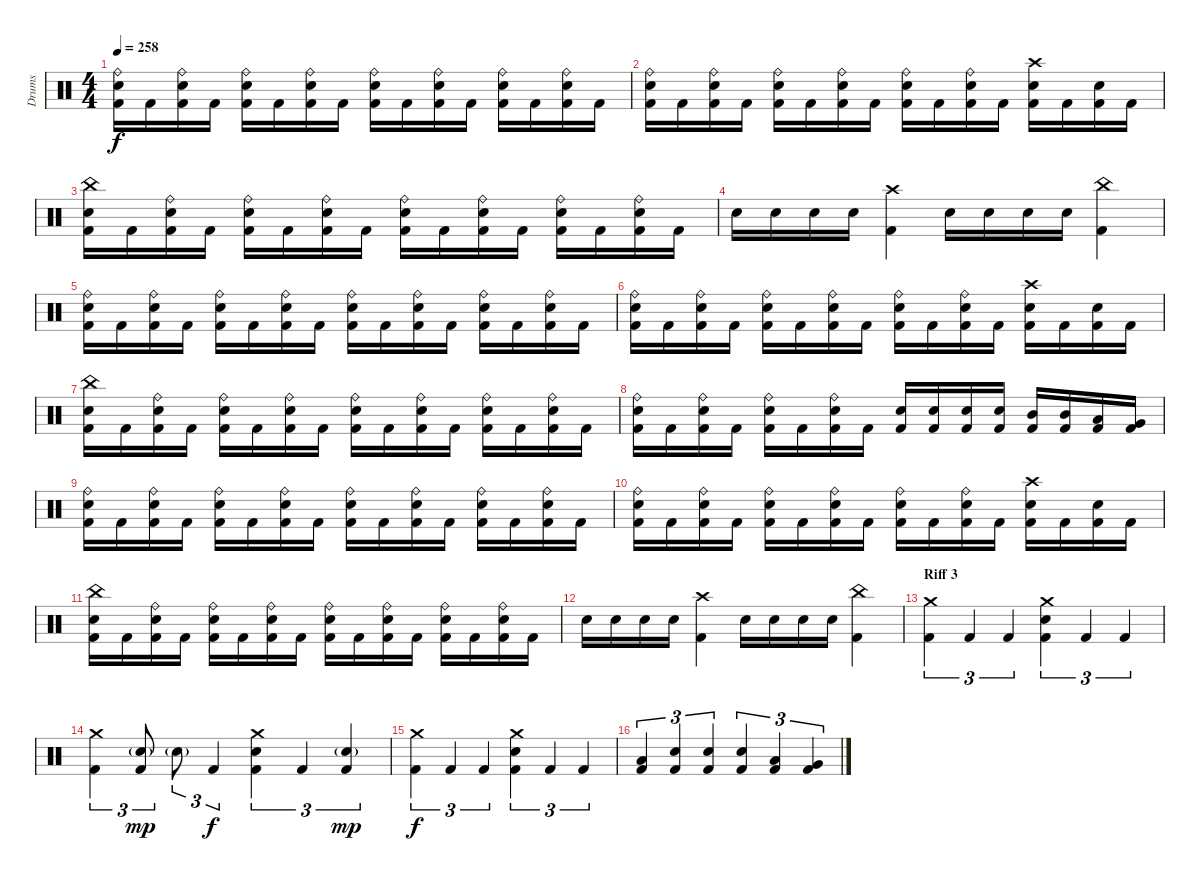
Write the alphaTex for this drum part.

\track ("Drums" "Drums") {instrument percussion}
\staff {score}
\articulation defaults
\ts (4 4)
\tempo 258
\clef neutral
\ks c
("Kick (hit) 2" "Snare (hit) 2" "Ride (bell)").16{dy f} "Kick (hit) 2".16 ("Kick (hit) 2" "Snare (hit) 2" "Ride (bell)").16 "Kick (hit) 2".16 ("Kick (hit) 2" "Snare (hit) 2" "Ride (bell)").16 "Kick (hit) 2".16 ("Kick (hit) 2" "Snare (hit) 2" "Ride (bell)").16 "Kick (hit) 2".16 ("Kick (hit) 2" "Snare (hit) 2" "Ride (bell)").16 "Kick (hit) 2".16 ("Kick (hit) 2" "Snare (hit) 2" "Ride (bell)").16 "Kick (hit) 2".16 ("Kick (hit) 2" "Snare (hit) 2" "Ride (bell)").16 "Kick (hit) 2".16 ("Kick (hit) 2" "Snare (hit) 2" "Ride (bell)").16 "Kick (hit) 2".16 |
("Kick (hit) 2" "Snare (hit) 2" "Ride (bell)").16 "Kick (hit) 2".16 ("Kick (hit) 2" "Snare (hit) 2" "Ride (bell)").16 "Kick (hit) 2".16 ("Kick (hit) 2" "Snare (hit) 2" "Ride (bell)").16 "Kick (hit) 2".16 ("Kick (hit) 2" "Snare (hit) 2" "Ride (bell)").16 "Kick (hit) 2".16 ("Kick (hit) 2" "Snare (hit) 2" "Ride (bell)").16 "Kick (hit) 2".16 ("Kick (hit) 2" "Snare (hit) 2" "Ride (bell)").16 "Kick (hit) 2".16 ("Kick (hit) 2" "Snare (hit) 2" "Crash high (hit)").16 "Kick (hit) 2".16 ("Kick (hit) 2" "Snare (hit) 2").16 "Kick (hit) 2".16 |
("Kick (hit) 2" "Snare (hit) 2" "China (hit)").16 "Kick (hit) 2".16 ("Kick (hit) 2" "Snare (hit) 2" "Ride (bell)").16 "Kick (hit) 2".16 ("Kick (hit) 2" "Snare (hit) 2" "Ride (bell)").16 "Kick (hit) 2".16 ("Kick (hit) 2" "Snare (hit) 2" "Ride (bell)").16 "Kick (hit) 2".16 ("Kick (hit) 2" "Snare (hit) 2" "Ride (bell)").16 "Kick (hit) 2".16 ("Kick (hit) 2" "Snare (hit) 2" "Ride (bell)").16 "Kick (hit) 2".16 ("Kick (hit) 2" "Snare (hit) 2" "Ride (bell)").16 "Kick (hit) 2".16 ("Kick (hit) 2" "Snare (hit) 2" "Ride (bell)").16 "Kick (hit) 2".16 |
"Snare (hit) 2".16 "Snare (hit) 2".16 "Snare (hit) 2".16 "Snare (hit) 2".16 ("Kick (hit) 2" "Crash high (hit)").4 "Snare (hit) 2".16 "Snare (hit) 2".16 "Snare (hit) 2".16 "Snare (hit) 2".16 ("Kick (hit) 2" "China (hit)").4 |
("Kick (hit) 2" "Snare (hit) 2" "Ride (bell)").16 "Kick (hit) 2".16 ("Kick (hit) 2" "Snare (hit) 2" "Ride (bell)").16 "Kick (hit) 2".16 ("Kick (hit) 2" "Snare (hit) 2" "Ride (bell)").16 "Kick (hit) 2".16 ("Kick (hit) 2" "Snare (hit) 2" "Ride (bell)").16 "Kick (hit) 2".16 ("Kick (hit) 2" "Snare (hit) 2" "Ride (bell)").16 "Kick (hit) 2".16 ("Kick (hit) 2" "Snare (hit) 2" "Ride (bell)").16 "Kick (hit) 2".16 ("Kick (hit) 2" "Snare (hit) 2" "Ride (bell)").16 "Kick (hit) 2".16 ("Kick (hit) 2" "Snare (hit) 2" "Ride (bell)").16 "Kick (hit) 2".16 |
("Kick (hit) 2" "Snare (hit) 2" "Ride (bell)").16 "Kick (hit) 2".16 ("Kick (hit) 2" "Snare (hit) 2" "Ride (bell)").16 "Kick (hit) 2".16 ("Kick (hit) 2" "Snare (hit) 2" "Ride (bell)").16 "Kick (hit) 2".16 ("Kick (hit) 2" "Snare (hit) 2" "Ride (bell)").16 "Kick (hit) 2".16 ("Kick (hit) 2" "Snare (hit) 2" "Ride (bell)").16 "Kick (hit) 2".16 ("Kick (hit) 2" "Snare (hit) 2" "Ride (bell)").16 "Kick (hit) 2".16 ("Kick (hit) 2" "Snare (hit) 2" "Crash high (hit)").16 "Kick (hit) 2".16 ("Kick (hit) 2" "Snare (hit) 2").16 "Kick (hit) 2".16 |
("Kick (hit) 2" "Snare (hit) 2" "China (hit)").16 "Kick (hit) 2".16 ("Kick (hit) 2" "Snare (hit) 2" "Ride (bell)").16 "Kick (hit) 2".16 ("Kick (hit) 2" "Snare (hit) 2" "Ride (bell)").16 "Kick (hit) 2".16 ("Kick (hit) 2" "Snare (hit) 2" "Ride (bell)").16 "Kick (hit) 2".16 ("Kick (hit) 2" "Snare (hit) 2" "Ride (bell)").16 "Kick (hit) 2".16 ("Kick (hit) 2" "Snare (hit) 2" "Ride (bell)").16 "Kick (hit) 2".16 ("Kick (hit) 2" "Snare (hit) 2" "Ride (bell)").16 "Kick (hit) 2".16 ("Kick (hit) 2" "Snare (hit) 2" "Ride (bell)").16 "Kick (hit) 2".16 |
("Kick (hit) 2" "Snare (hit) 2" "Ride (bell)").16 "Kick (hit) 2".16 ("Kick (hit) 2" "Snare (hit) 2" "Ride (bell)").16 "Kick (hit) 2".16 ("Kick (hit) 2" "Snare (hit) 2" "Ride (bell)").16 "Kick (hit) 2".16 ("Kick (hit) 2" "Snare (hit) 2" "Ride (bell)").16 "Kick (hit) 2".16 ("Kick (hit) 2" "Snare (hit) 2").16 ("Kick (hit) 2" "Snare (hit) 2").16 ("Kick (hit) 2" "Snare (hit) 2").16 ("Kick (hit) 2" "Snare (hit) 2").16 ("Kick (hit) 2" "Mid Tom (hit)").16 ("Kick (hit) 2" "Mid Tom (hit)").16 ("Kick (hit) 2" "Low Tom (hit)").16 ("Kick (hit) 2" "Very Low Tom (hit)").16 |
("Kick (hit) 2" "Snare (hit) 2" "Ride (bell)").16 "Kick (hit) 2".16 ("Kick (hit) 2" "Snare (hit) 2" "Ride (bell)").16 "Kick (hit) 2".16 ("Kick (hit) 2" "Snare (hit) 2" "Ride (bell)").16 "Kick (hit) 2".16 ("Kick (hit) 2" "Snare (hit) 2" "Ride (bell)").16 "Kick (hit) 2".16 ("Kick (hit) 2" "Snare (hit) 2" "Ride (bell)").16 "Kick (hit) 2".16 ("Kick (hit) 2" "Snare (hit) 2" "Ride (bell)").16 "Kick (hit) 2".16 ("Kick (hit) 2" "Snare (hit) 2" "Ride (bell)").16 "Kick (hit) 2".16 ("Kick (hit) 2" "Snare (hit) 2" "Ride (bell)").16 "Kick (hit) 2".16 |
("Kick (hit) 2" "Snare (hit) 2" "Ride (bell)").16 "Kick (hit) 2".16 ("Kick (hit) 2" "Snare (hit) 2" "Ride (bell)").16 "Kick (hit) 2".16 ("Kick (hit) 2" "Snare (hit) 2" "Ride (bell)").16 "Kick (hit) 2".16 ("Kick (hit) 2" "Snare (hit) 2" "Ride (bell)").16 "Kick (hit) 2".16 ("Kick (hit) 2" "Snare (hit) 2" "Ride (bell)").16 "Kick (hit) 2".16 ("Kick (hit) 2" "Snare (hit) 2" "Ride (bell)").16 "Kick (hit) 2".16 ("Kick (hit) 2" "Snare (hit) 2" "Crash high (hit)").16 "Kick (hit) 2".16 ("Kick (hit) 2" "Snare (hit) 2").16 "Kick (hit) 2".16 |
("Kick (hit) 2" "Snare (hit) 2" "China (hit)").16 "Kick (hit) 2".16 ("Kick (hit) 2" "Snare (hit) 2" "Ride (bell)").16 "Kick (hit) 2".16 ("Kick (hit) 2" "Snare (hit) 2" "Ride (bell)").16 "Kick (hit) 2".16 ("Kick (hit) 2" "Snare (hit) 2" "Ride (bell)").16 "Kick (hit) 2".16 ("Kick (hit) 2" "Snare (hit) 2" "Ride (bell)").16 "Kick (hit) 2".16 ("Kick (hit) 2" "Snare (hit) 2" "Ride (bell)").16 "Kick (hit) 2".16 ("Kick (hit) 2" "Snare (hit) 2" "Ride (bell)").16 "Kick (hit) 2".16 ("Kick (hit) 2" "Snare (hit) 2" "Ride (bell)").16 "Kick (hit) 2".16 |
"Snare (hit) 2".16 "Snare (hit) 2".16 "Snare (hit) 2".16 "Snare (hit) 2".16 ("Kick (hit) 2" "Crash high (hit)").4 "Snare (hit) 2".16 "Snare (hit) 2".16 "Snare (hit) 2".16 "Snare (hit) 2".16 ("Kick (hit) 2" "China (hit)").4 |
\section ("" "Riff 3")
("Kick (hit) 2" "Crash medium (hit)").4{tu (3 2)} "Kick (hit) 2".4{tu (3 2)} "Kick (hit) 2".4{tu (3 2)} ("Kick (hit) 2" "Snare (hit) 2" "Crash medium (hit)").4{tu (3 2)} "Kick (hit) 2".4{tu (3 2)} "Kick (hit) 2".4{tu (3 2)} |
("Kick (hit) 2" "Crash medium (hit)").4{tu (3 2)} ("Kick (hit) 2" "Snare (hit) 2"{g}).8{tu (3 2) dy mp} "Snare (hit) 2"{g}.8{tu (3 2)} "Kick (hit) 2".4{tu (3 2) dy f} ("Kick (hit) 2" "Snare (hit) 2" "Crash medium (hit)").4{tu (3 2)} "Kick (hit) 2".4{tu (3 2)} ("Kick (hit) 2" "Snare (hit) 2"{g}).4{tu (3 2) dy mp} |
("Kick (hit) 2" "Crash medium (hit)").4{tu (3 2) dy f} "Kick (hit) 2".4{tu (3 2)} "Kick (hit) 2".4{tu (3 2)} ("Kick (hit) 2" "Snare (hit) 2" "Crash medium (hit)").4{tu (3 2)} "Kick (hit) 2".4{tu (3 2)} "Kick (hit) 2".4{tu (3 2)} |
("Kick (hit) 2" "Low Tom (hit)").4{tu (3 2)} ("Kick (hit) 2" "Snare (hit) 2").4{tu (3 2)} ("Kick (hit) 2" "Snare (hit) 2").4{tu (3 2)} ("Kick (hit) 2" "Snare (hit) 2").4{tu (3 2)} ("Kick (hit) 2" "Low Tom (hit)").4{tu (3 2)} ("Kick (hit) 2" "Very Low Tom (hit)").4{tu (3 2)}
